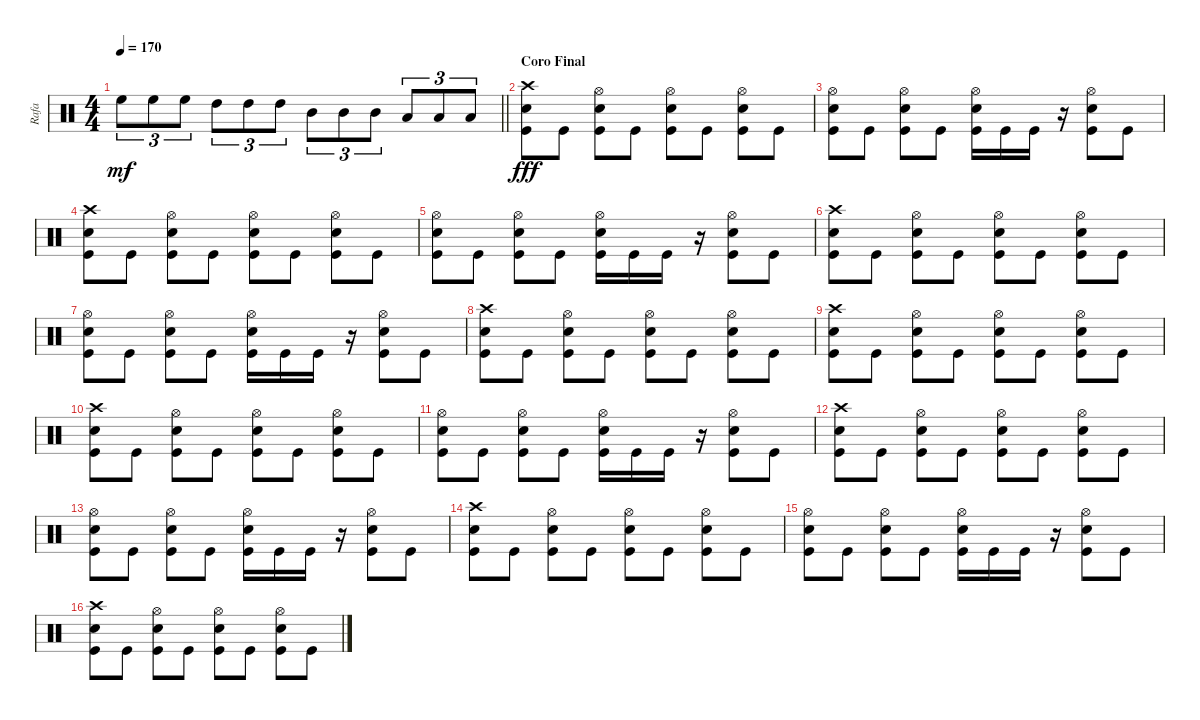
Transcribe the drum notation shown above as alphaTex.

\track ("Rafa" "Rafa") {instrument percussion}
\staff {score}
\articulation defaults
\ts (4 4)
\tempo 170
\clef neutral
\barLineRight lightlight
\ks c "High Floor Tom (hit)".8{tu (3 2) dy mf} "High Floor Tom (hit)".8{tu (3 2)} "High Floor Tom (hit)".8{tu (3 2)} "High Tom (hit)".8{tu (3 2)} "High Tom (hit)".8{tu (3 2)} "High Tom (hit)".8{tu (3 2)} "Mid Tom (hit)".8{tu (3 2)} "Mid Tom (hit)".8{tu (3 2)} "Mid Tom (hit)".8{tu (3 2)} "Low Tom (hit)".8{tu (3 2)} "Low Tom (hit)".8{tu (3 2)} "Low Tom (hit)".8{tu (3 2)}
|
\section ("" "Coro Final")
("Crash high (hit)" "Electric Snare (hit)" "Kick (hit)").8{dy fff} "Kick (hit)".8 ("Hi-Hat (open)" "Electric Snare (hit)" "Kick (hit)").8 "Kick (hit)".8 ("Hi-Hat (open)" "Electric Snare (hit)" "Kick (hit)").8 "Kick (hit)".8 ("Hi-Hat (open)" "Electric Snare (hit)" "Kick (hit)").8 "Kick (hit)".8 |
("Hi-Hat (open)" "Electric Snare (hit)" "Kick (hit)").8 "Kick (hit)".8 ("Hi-Hat (open)" "Electric Snare (hit)" "Kick (hit)").8 "Kick (hit)".8 ("Hi-Hat (open)" "Electric Snare (hit)" "Kick (hit)").16 "Kick (hit)".16 "Kick (hit)".16 r.16 ("Hi-Hat (open)" "Electric Snare (hit)" "Kick (hit)").8 "Kick (hit)".8 |
("Crash high (hit)" "Electric Snare (hit)" "Kick (hit)").8 "Kick (hit)".8 ("Hi-Hat (open)" "Electric Snare (hit)" "Kick (hit)").8 "Kick (hit)".8 ("Hi-Hat (open)" "Electric Snare (hit)" "Kick (hit)").8 "Kick (hit)".8 ("Hi-Hat (open)" "Electric Snare (hit)" "Kick (hit)").8 "Kick (hit)".8 |
("Hi-Hat (open)" "Electric Snare (hit)" "Kick (hit)").8 "Kick (hit)".8 ("Hi-Hat (open)" "Electric Snare (hit)" "Kick (hit)").8 "Kick (hit)".8 ("Hi-Hat (open)" "Electric Snare (hit)" "Kick (hit)").16 "Kick (hit)".16 "Kick (hit)".16 r.16 ("Hi-Hat (open)" "Electric Snare (hit)" "Kick (hit)").8 "Kick (hit)".8 |
("Crash high (hit)" "Electric Snare (hit)" "Kick (hit)").8 "Kick (hit)".8 ("Hi-Hat (open)" "Electric Snare (hit)" "Kick (hit)").8 "Kick (hit)".8 ("Hi-Hat (open)" "Electric Snare (hit)" "Kick (hit)").8 "Kick (hit)".8 ("Hi-Hat (open)" "Electric Snare (hit)" "Kick (hit)").8 "Kick (hit)".8 |
("Hi-Hat (open)" "Electric Snare (hit)" "Kick (hit)").8 "Kick (hit)".8 ("Hi-Hat (open)" "Electric Snare (hit)" "Kick (hit)").8 "Kick (hit)".8 ("Hi-Hat (open)" "Electric Snare (hit)" "Kick (hit)").16 "Kick (hit)".16 "Kick (hit)".16 r.16 ("Hi-Hat (open)" "Electric Snare (hit)" "Kick (hit)").8 "Kick (hit)".8 |
("Crash high (hit)" "Electric Snare (hit)" "Kick (hit)").8 "Kick (hit)".8 ("Hi-Hat (open)" "Electric Snare (hit)" "Kick (hit)").8 "Kick (hit)".8 ("Hi-Hat (open)" "Electric Snare (hit)" "Kick (hit)").8 "Kick (hit)".8 ("Hi-Hat (open)" "Electric Snare (hit)" "Kick (hit)").8 "Kick (hit)".8 |
("Crash high (hit)" "Electric Snare (hit)" "Kick (hit)").8 "Kick (hit)".8 ("Hi-Hat (open)" "Electric Snare (hit)" "Kick (hit)").8 "Kick (hit)".8 ("Hi-Hat (open)" "Electric Snare (hit)" "Kick (hit)").8 "Kick (hit)".8 ("Hi-Hat (open)" "Electric Snare (hit)" "Kick (hit)").8 "Kick (hit)".8 |
("Crash high (hit)" "Electric Snare (hit)" "Kick (hit)").8 "Kick (hit)".8 ("Hi-Hat (open)" "Electric Snare (hit)" "Kick (hit)").8 "Kick (hit)".8 ("Hi-Hat (open)" "Electric Snare (hit)" "Kick (hit)").8 "Kick (hit)".8 ("Hi-Hat (open)" "Electric Snare (hit)" "Kick (hit)").8 "Kick (hit)".8 |
("Hi-Hat (open)" "Electric Snare (hit)" "Kick (hit)").8 "Kick (hit)".8 ("Hi-Hat (open)" "Electric Snare (hit)" "Kick (hit)").8 "Kick (hit)".8 ("Hi-Hat (open)" "Electric Snare (hit)" "Kick (hit)").16 "Kick (hit)".16 "Kick (hit)".16 r.16 ("Hi-Hat (open)" "Electric Snare (hit)" "Kick (hit)").8 "Kick (hit)".8 |
("Crash high (hit)" "Electric Snare (hit)" "Kick (hit)").8 "Kick (hit)".8 ("Hi-Hat (open)" "Electric Snare (hit)" "Kick (hit)").8 "Kick (hit)".8 ("Hi-Hat (open)" "Electric Snare (hit)" "Kick (hit)").8 "Kick (hit)".8 ("Hi-Hat (open)" "Electric Snare (hit)" "Kick (hit)").8 "Kick (hit)".8 |
("Hi-Hat (open)" "Electric Snare (hit)" "Kick (hit)").8 "Kick (hit)".8 ("Hi-Hat (open)" "Electric Snare (hit)" "Kick (hit)").8 "Kick (hit)".8 ("Hi-Hat (open)" "Electric Snare (hit)" "Kick (hit)").16 "Kick (hit)".16 "Kick (hit)".16 r.16 ("Hi-Hat (open)" "Electric Snare (hit)" "Kick (hit)").8 "Kick (hit)".8 |
("Crash high (hit)" "Electric Snare (hit)" "Kick (hit)").8 "Kick (hit)".8 ("Hi-Hat (open)" "Electric Snare (hit)" "Kick (hit)").8 "Kick (hit)".8 ("Hi-Hat (open)" "Electric Snare (hit)" "Kick (hit)").8 "Kick (hit)".8 ("Hi-Hat (open)" "Electric Snare (hit)" "Kick (hit)").8 "Kick (hit)".8 |
("Hi-Hat (open)" "Electric Snare (hit)" "Kick (hit)").8 "Kick (hit)".8 ("Hi-Hat (open)" "Electric Snare (hit)" "Kick (hit)").8 "Kick (hit)".8 ("Hi-Hat (open)" "Electric Snare (hit)" "Kick (hit)").16 "Kick (hit)".16 "Kick (hit)".16 r.16 ("Hi-Hat (open)" "Electric Snare (hit)" "Kick (hit)").8 "Kick (hit)".8 |
("Crash high (hit)" "Electric Snare (hit)" "Kick (hit)").8 "Kick (hit)".8 ("Hi-Hat (open)" "Electric Snare (hit)" "Kick (hit)").8 "Kick (hit)".8 ("Hi-Hat (open)" "Electric Snare (hit)" "Kick (hit)").8 "Kick (hit)".8 ("Hi-Hat (open)" "Electric Snare (hit)" "Kick (hit)").8 "Kick (hit)".8
